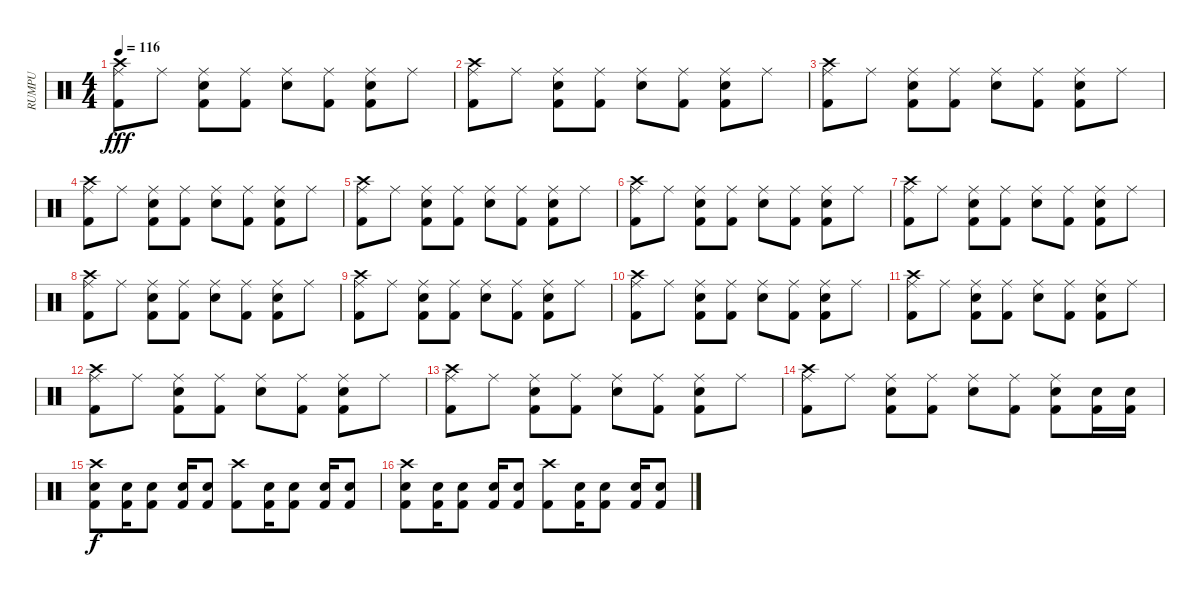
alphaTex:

\track ("RUMPU" "RUMPU") {instrument percussion}
\staff {score}
\articulation defaults
\ts (4 4)
\tempo 116
\clef neutral
\ks c
("Crash high (hit)" "Ride (middle)" "Kick (hit) 2").8{dy fff} "Ride (middle)".8 ("Electric Snare (hit)" "Ride (middle)" "Kick (hit) 2").8 ("Ride (middle)" "Kick (hit) 2").8 ("Electric Snare (hit)" "Ride (middle)").8 ("Ride (middle)" "Kick (hit) 2").8 ("Electric Snare (hit)" "Ride (middle)" "Kick (hit) 2").8 "Ride (middle)".8 |
("Crash high (hit)" "Ride (middle)" "Kick (hit) 2").8 "Ride (middle)".8 ("Electric Snare (hit)" "Ride (middle)" "Kick (hit) 2").8 ("Ride (middle)" "Kick (hit) 2").8 ("Electric Snare (hit)" "Ride (middle)").8 ("Ride (middle)" "Kick (hit) 2").8 ("Electric Snare (hit)" "Ride (middle)" "Kick (hit) 2").8 "Ride (middle)".8 |
("Crash high (hit)" "Ride (middle)" "Kick (hit) 2").8 "Ride (middle)".8 ("Electric Snare (hit)" "Ride (middle)" "Kick (hit) 2").8 ("Ride (middle)" "Kick (hit) 2").8 ("Electric Snare (hit)" "Ride (middle)").8 ("Ride (middle)" "Kick (hit) 2").8 ("Electric Snare (hit)" "Ride (middle)" "Kick (hit) 2").8 "Ride (middle)".8 |
("Crash high (hit)" "Ride (middle)" "Kick (hit) 2").8 "Ride (middle)".8 ("Electric Snare (hit)" "Ride (middle)" "Kick (hit) 2").8 ("Ride (middle)" "Kick (hit) 2").8 ("Electric Snare (hit)" "Ride (middle)").8 ("Ride (middle)" "Kick (hit) 2").8 ("Electric Snare (hit)" "Ride (middle)" "Kick (hit) 2").8 "Ride (middle)".8 |
("Crash high (hit)" "Ride (middle)" "Kick (hit) 2").8 "Ride (middle)".8 ("Electric Snare (hit)" "Ride (middle)" "Kick (hit) 2").8 ("Ride (middle)" "Kick (hit) 2").8 ("Electric Snare (hit)" "Ride (middle)").8 ("Ride (middle)" "Kick (hit) 2").8 ("Electric Snare (hit)" "Ride (middle)" "Kick (hit) 2").8 "Ride (middle)".8 |
("Crash high (hit)" "Ride (middle)" "Kick (hit) 2").8 "Ride (middle)".8 ("Electric Snare (hit)" "Ride (middle)" "Kick (hit) 2").8 ("Ride (middle)" "Kick (hit) 2").8 ("Electric Snare (hit)" "Ride (middle)").8 ("Ride (middle)" "Kick (hit) 2").8 ("Electric Snare (hit)" "Ride (middle)" "Kick (hit) 2").8 "Ride (middle)".8 |
("Crash high (hit)" "Ride (middle)" "Kick (hit) 2").8 "Ride (middle)".8 ("Electric Snare (hit)" "Ride (middle)" "Kick (hit) 2").8 ("Ride (middle)" "Kick (hit) 2").8 ("Electric Snare (hit)" "Ride (middle)").8 ("Ride (middle)" "Kick (hit) 2").8 ("Electric Snare (hit)" "Ride (middle)" "Kick (hit) 2").8 "Ride (middle)".8 |
("Crash high (hit)" "Ride (middle)" "Kick (hit) 2").8 "Ride (middle)".8 ("Electric Snare (hit)" "Ride (middle)" "Kick (hit) 2").8 ("Ride (middle)" "Kick (hit) 2").8 ("Electric Snare (hit)" "Ride (middle)").8 ("Ride (middle)" "Kick (hit) 2").8 ("Electric Snare (hit)" "Ride (middle)" "Kick (hit) 2").8 "Ride (middle)".8 |
("Crash high (hit)" "Ride (middle)" "Kick (hit) 2").8 "Ride (middle)".8 ("Electric Snare (hit)" "Ride (middle)" "Kick (hit) 2").8 ("Ride (middle)" "Kick (hit) 2").8 ("Electric Snare (hit)" "Ride (middle)").8 ("Ride (middle)" "Kick (hit) 2").8 ("Electric Snare (hit)" "Ride (middle)" "Kick (hit) 2").8 "Ride (middle)".8 |
("Crash high (hit)" "Ride (middle)" "Kick (hit) 2").8 "Ride (middle)".8 ("Electric Snare (hit)" "Ride (middle)" "Kick (hit) 2").8 ("Ride (middle)" "Kick (hit) 2").8 ("Electric Snare (hit)" "Ride (middle)").8 ("Ride (middle)" "Kick (hit) 2").8 ("Electric Snare (hit)" "Ride (middle)" "Kick (hit) 2").8 "Ride (middle)".8 |
("Crash high (hit)" "Ride (middle)" "Kick (hit) 2").8 "Ride (middle)".8 ("Electric Snare (hit)" "Ride (middle)" "Kick (hit) 2").8 ("Ride (middle)" "Kick (hit) 2").8 ("Electric Snare (hit)" "Ride (middle)").8 ("Ride (middle)" "Kick (hit) 2").8 ("Electric Snare (hit)" "Ride (middle)" "Kick (hit) 2").8 "Ride (middle)".8 |
("Crash high (hit)" "Ride (middle)" "Kick (hit) 2").8 "Ride (middle)".8 ("Electric Snare (hit)" "Ride (middle)" "Kick (hit) 2").8 ("Ride (middle)" "Kick (hit) 2").8 ("Electric Snare (hit)" "Ride (middle)").8 ("Ride (middle)" "Kick (hit) 2").8 ("Electric Snare (hit)" "Ride (middle)" "Kick (hit) 2").8 "Ride (middle)".8 |
("Crash high (hit)" "Ride (middle)" "Kick (hit) 2").8 "Ride (middle)".8 ("Electric Snare (hit)" "Ride (middle)" "Kick (hit) 2").8 ("Ride (middle)" "Kick (hit) 2").8 ("Electric Snare (hit)" "Ride (middle)").8 ("Ride (middle)" "Kick (hit) 2").8 ("Electric Snare (hit)" "Ride (middle)" "Kick (hit) 2").8 "Ride (middle)".8 |
("Crash high (hit)" "Ride (middle)" "Kick (hit) 2").8 "Ride (middle)".8 ("Electric Snare (hit)" "Ride (middle)" "Kick (hit) 2").8 ("Ride (middle)" "Kick (hit) 2").8 ("Electric Snare (hit)" "Ride (middle)").8 ("Ride (middle)" "Kick (hit) 2").8 ("Electric Snare (hit)" "Ride (middle)" "Kick (hit) 2").8 ("Electric Snare (hit)" "Kick (hit) 2").16 ("Electric Snare (hit)" "Kick (hit) 2").16 |
("Electric Snare (hit)" "Crash high (hit)" "Kick (hit) 2").8{dy f} ("Electric Snare (hit)" "Kick (hit) 2").16 ("Electric Snare (hit)" "Kick (hit) 2").8 ("Electric Snare (hit)" "Kick (hit) 2").16 ("Electric Snare (hit)" "Kick (hit) 2").8 ("Crash high (hit)" "Kick (hit) 2").8 ("Electric Snare (hit)" "Kick (hit) 2").16 ("Electric Snare (hit)" "Kick (hit) 2").8 ("Electric Snare (hit)" "Kick (hit) 2").16 ("Electric Snare (hit)" "Kick (hit) 2").8 |
("Electric Snare (hit)" "Crash high (hit)" "Kick (hit) 2").8 ("Electric Snare (hit)" "Kick (hit) 2").16 ("Electric Snare (hit)" "Kick (hit) 2").8 ("Electric Snare (hit)" "Kick (hit) 2").16 ("Electric Snare (hit)" "Kick (hit) 2").8 ("Crash high (hit)" "Kick (hit) 2").8 ("Electric Snare (hit)" "Kick (hit) 2").16 ("Electric Snare (hit)" "Kick (hit) 2").8 ("Electric Snare (hit)" "Kick (hit) 2").16 ("Electric Snare (hit)" "Kick (hit) 2").8
